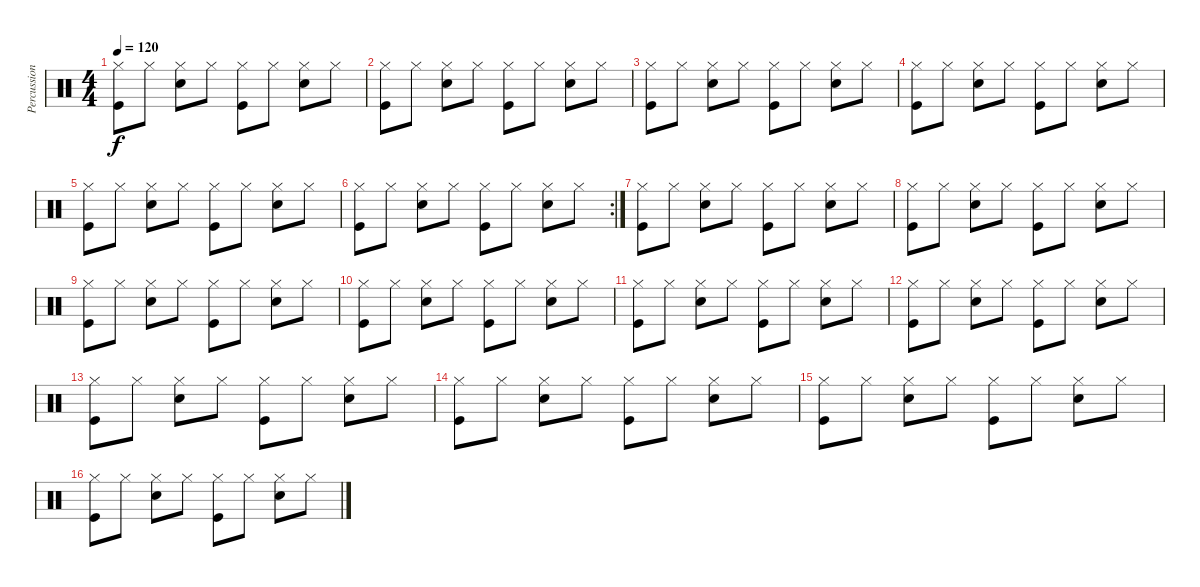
\track ("Percussions" "Percussion") {instrument percussion}
\staff {score}
\articulation defaults
\ts (4 4)
\tempo 120
\clef neutral
\ks c
("Hi-Hat (closed)" "Kick (hit)").8{dy f} "Hi-Hat (closed)".8 ("Hi-Hat (closed)" "Snare (hit) 2").8 "Hi-Hat (closed)".8 ("Hi-Hat (closed)" "Kick (hit)").8 "Hi-Hat (closed)".8 ("Hi-Hat (closed)" "Snare (hit) 2").8 "Hi-Hat (closed)".8 |
("Hi-Hat (closed)" "Kick (hit)").8 "Hi-Hat (closed)".8 ("Hi-Hat (closed)" "Snare (hit) 2").8 "Hi-Hat (closed)".8 ("Hi-Hat (closed)" "Kick (hit)").8 "Hi-Hat (closed)".8 ("Hi-Hat (closed)" "Snare (hit) 2").8 "Hi-Hat (closed)".8 |
("Hi-Hat (closed)" "Kick (hit)").8 "Hi-Hat (closed)".8 ("Hi-Hat (closed)" "Snare (hit) 2").8 "Hi-Hat (closed)".8 ("Hi-Hat (closed)" "Kick (hit)").8 "Hi-Hat (closed)".8 ("Hi-Hat (closed)" "Snare (hit) 2").8 "Hi-Hat (closed)".8 |
("Hi-Hat (closed)" "Kick (hit)").8 "Hi-Hat (closed)".8 ("Hi-Hat (closed)" "Snare (hit) 2").8 "Hi-Hat (closed)".8 ("Hi-Hat (closed)" "Kick (hit)").8 "Hi-Hat (closed)".8 ("Hi-Hat (closed)" "Snare (hit) 2").8 "Hi-Hat (closed)".8 |
("Hi-Hat (closed)" "Kick (hit)").8 "Hi-Hat (closed)".8 ("Hi-Hat (closed)" "Snare (hit) 2").8 "Hi-Hat (closed)".8 ("Hi-Hat (closed)" "Kick (hit)").8 "Hi-Hat (closed)".8 ("Hi-Hat (closed)" "Snare (hit) 2").8 "Hi-Hat (closed)".8 |
\rc 2
("Hi-Hat (closed)" "Kick (hit)").8 "Hi-Hat (closed)".8 ("Hi-Hat (closed)" "Snare (hit) 2").8 "Hi-Hat (closed)".8 ("Hi-Hat (closed)" "Kick (hit)").8 "Hi-Hat (closed)".8 ("Hi-Hat (closed)" "Snare (hit) 2").8 "Hi-Hat (closed)".8 |
("Hi-Hat (closed)" "Kick (hit)").8 "Hi-Hat (closed)".8 ("Hi-Hat (closed)" "Snare (hit) 2").8 "Hi-Hat (closed)".8 ("Hi-Hat (closed)" "Kick (hit)").8 "Hi-Hat (closed)".8 ("Hi-Hat (closed)" "Snare (hit) 2").8 "Hi-Hat (closed)".8 |
("Hi-Hat (closed)" "Kick (hit)").8 "Hi-Hat (closed)".8 ("Hi-Hat (closed)" "Snare (hit) 2").8 "Hi-Hat (closed)".8 ("Hi-Hat (closed)" "Kick (hit)").8 "Hi-Hat (closed)".8 ("Hi-Hat (closed)" "Snare (hit) 2").8 "Hi-Hat (closed)".8 |
("Hi-Hat (closed)" "Kick (hit)").8 "Hi-Hat (closed)".8 ("Hi-Hat (closed)" "Snare (hit) 2").8 "Hi-Hat (closed)".8 ("Hi-Hat (closed)" "Kick (hit)").8 "Hi-Hat (closed)".8 ("Hi-Hat (closed)" "Snare (hit) 2").8 "Hi-Hat (closed)".8 |
("Hi-Hat (closed)" "Kick (hit)").8 "Hi-Hat (closed)".8 ("Hi-Hat (closed)" "Snare (hit) 2").8 "Hi-Hat (closed)".8 ("Hi-Hat (closed)" "Kick (hit)").8 "Hi-Hat (closed)".8 ("Hi-Hat (closed)" "Snare (hit) 2").8 "Hi-Hat (closed)".8 |
("Hi-Hat (closed)" "Kick (hit)").8 "Hi-Hat (closed)".8 ("Hi-Hat (closed)" "Snare (hit) 2").8 "Hi-Hat (closed)".8 ("Hi-Hat (closed)" "Kick (hit)").8 "Hi-Hat (closed)".8 ("Hi-Hat (closed)" "Snare (hit) 2").8 "Hi-Hat (closed)".8 |
("Hi-Hat (closed)" "Kick (hit)").8 "Hi-Hat (closed)".8 ("Hi-Hat (closed)" "Snare (hit) 2").8 "Hi-Hat (closed)".8 ("Hi-Hat (closed)" "Kick (hit)").8 "Hi-Hat (closed)".8 ("Hi-Hat (closed)" "Snare (hit) 2").8 "Hi-Hat (closed)".8 |
("Hi-Hat (closed)" "Kick (hit)").8 "Hi-Hat (closed)".8 ("Hi-Hat (closed)" "Snare (hit) 2").8 "Hi-Hat (closed)".8 ("Hi-Hat (closed)" "Kick (hit)").8 "Hi-Hat (closed)".8 ("Hi-Hat (closed)" "Snare (hit) 2").8 "Hi-Hat (closed)".8 |
("Hi-Hat (closed)" "Kick (hit)").8 "Hi-Hat (closed)".8 ("Hi-Hat (closed)" "Snare (hit) 2").8 "Hi-Hat (closed)".8 ("Hi-Hat (closed)" "Kick (hit)").8 "Hi-Hat (closed)".8 ("Hi-Hat (closed)" "Snare (hit) 2").8 "Hi-Hat (closed)".8 |
("Hi-Hat (closed)" "Kick (hit)").8 "Hi-Hat (closed)".8 ("Hi-Hat (closed)" "Snare (hit) 2").8 "Hi-Hat (closed)".8 ("Hi-Hat (closed)" "Kick (hit)").8 "Hi-Hat (closed)".8 ("Hi-Hat (closed)" "Snare (hit) 2").8 "Hi-Hat (closed)".8 |
("Hi-Hat (closed)" "Kick (hit)").8 "Hi-Hat (closed)".8 ("Hi-Hat (closed)" "Snare (hit) 2").8 "Hi-Hat (closed)".8 ("Hi-Hat (closed)" "Kick (hit)").8 "Hi-Hat (closed)".8 ("Hi-Hat (closed)" "Snare (hit) 2").8 "Hi-Hat (closed)".8
